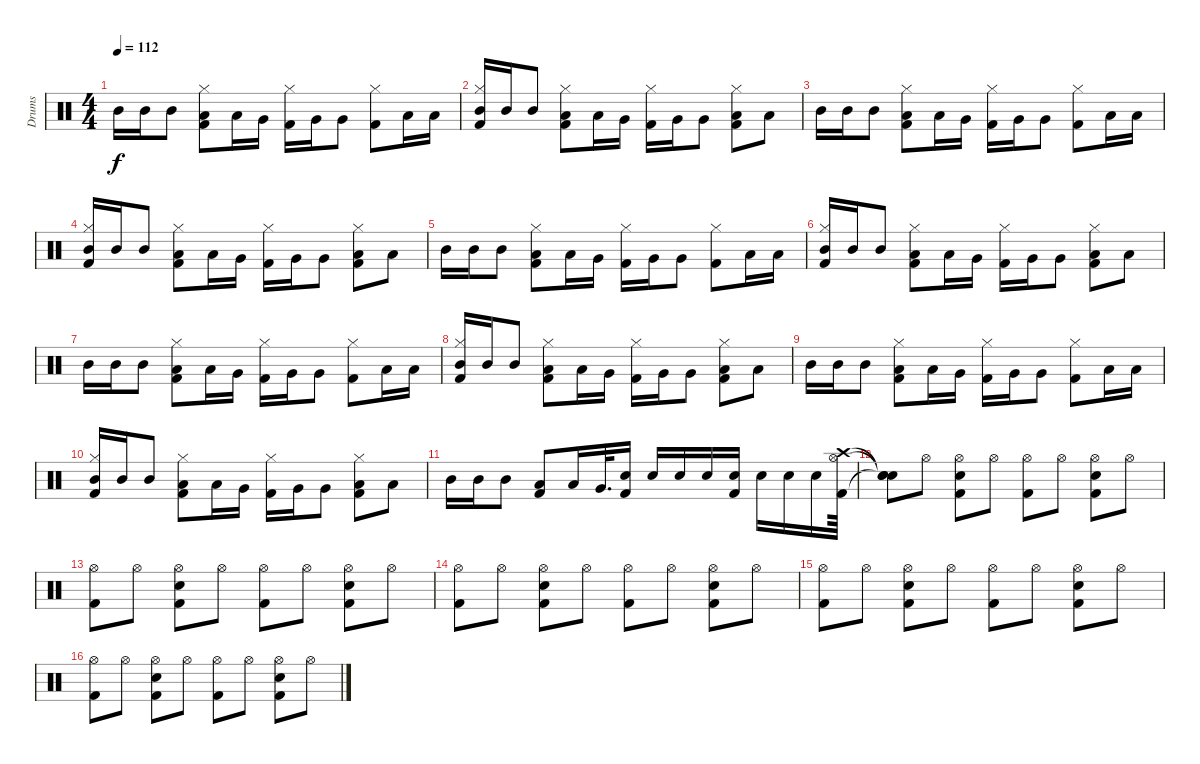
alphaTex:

\track ("Drums" "Drums") {instrument percussion}
\staff {score}
\articulation defaults
\ts (4 4)
\tempo 112
\clef neutral
\ks c "Mid Tom (hit)".16{dy f} "Mid Tom (hit)".16 "Mid Tom (hit)".8
("Hi-Hat (closed)" "Kick (hit) 2" "Low Tom (hit)").8 "Low Tom (hit)".16 "Very Low Tom (hit)".16 ("Kick (hit) 2" "Hi-Hat (closed)").16 "Very Low Tom (hit)".16 "Very Low Tom (hit)".8 ("Kick (hit) 2" "Hi-Hat (closed)").8 "Low Floor Tom (hit)".16 "Low Floor Tom (hit)".16 |
("Hi-Hat (closed)" "Kick (hit) 2" "Mid Tom (hit)").16 "Mid Tom (hit)".16 "Mid Tom (hit)".8 ("Hi-Hat (closed)" "Low Tom (hit)" "Kick (hit) 2").8 "Low Tom (hit)".16 "Very Low Tom (hit)".16 ("Kick (hit) 2" "Hi-Hat (closed)").16 "Very Low Tom (hit)".16 "Very Low Tom (hit)".8 ("Low Floor Tom (hit)" "Kick (hit) 2" "Hi-Hat (closed)").8 "Low Floor Tom (hit)".8 |
"Mid Tom (hit)".16 "Mid Tom (hit)".16 "Mid Tom (hit)".8 ("Hi-Hat (closed)" "Kick (hit) 2" "Low Tom (hit)").8 "Low Tom (hit)".16 "Very Low Tom (hit)".16 ("Kick (hit) 2" "Hi-Hat (closed)").16 "Very Low Tom (hit)".16 "Very Low Tom (hit)".8 ("Kick (hit) 2" "Hi-Hat (closed)").8 "Low Floor Tom (hit)".16 "Low Floor Tom (hit)".16 |
("Hi-Hat (closed)" "Kick (hit) 2" "Mid Tom (hit)").16 "Mid Tom (hit)".16 "Mid Tom (hit)".8 ("Hi-Hat (closed)" "Low Tom (hit)" "Kick (hit) 2").8 "Low Tom (hit)".16 "Very Low Tom (hit)".16 ("Kick (hit) 2" "Hi-Hat (closed)").16 "Very Low Tom (hit)".16 "Very Low Tom (hit)".8 ("Low Floor Tom (hit)" "Kick (hit) 2" "Hi-Hat (closed)").8 "Low Floor Tom (hit)".8 |
"Mid Tom (hit)".16 "Mid Tom (hit)".16 "Mid Tom (hit)".8 ("Hi-Hat (closed)" "Kick (hit) 2" "Low Tom (hit)").8 "Low Tom (hit)".16 "Very Low Tom (hit)".16 ("Kick (hit) 2" "Hi-Hat (closed)").16 "Very Low Tom (hit)".16 "Very Low Tom (hit)".8 ("Kick (hit) 2" "Hi-Hat (closed)").8 "Low Floor Tom (hit)".16 "Low Floor Tom (hit)".16 |
("Hi-Hat (closed)" "Kick (hit) 2" "Mid Tom (hit)").16 "Mid Tom (hit)".16 "Mid Tom (hit)".8 ("Hi-Hat (closed)" "Low Tom (hit)" "Kick (hit) 2").8 "Low Tom (hit)".16 "Very Low Tom (hit)".16 ("Kick (hit) 2" "Hi-Hat (closed)").16 "Very Low Tom (hit)".16 "Very Low Tom (hit)".8 ("Low Floor Tom (hit)" "Kick (hit) 2" "Hi-Hat (closed)").8 "Low Floor Tom (hit)".8 |
"Mid Tom (hit)".16 "Mid Tom (hit)".16 "Mid Tom (hit)".8 ("Hi-Hat (closed)" "Kick (hit) 2" "Low Tom (hit)").8 "Low Tom (hit)".16 "Very Low Tom (hit)".16 ("Kick (hit) 2" "Hi-Hat (closed)").16 "Very Low Tom (hit)".16 "Very Low Tom (hit)".8 ("Kick (hit) 2" "Hi-Hat (closed)").8 "Low Floor Tom (hit)".16 "Low Floor Tom (hit)".16 |
("Hi-Hat (closed)" "Kick (hit) 2" "Mid Tom (hit)").16 "Mid Tom (hit)".16 "Mid Tom (hit)".8 ("Hi-Hat (closed)" "Low Tom (hit)" "Kick (hit) 2").8 "Low Tom (hit)".16 "Very Low Tom (hit)".16 ("Kick (hit) 2" "Hi-Hat (closed)").16 "Very Low Tom (hit)".16 "Very Low Tom (hit)".8 ("Low Floor Tom (hit)" "Kick (hit) 2" "Hi-Hat (closed)").8 "Low Floor Tom (hit)".8 |
"Mid Tom (hit)".16 "Mid Tom (hit)".16 "Mid Tom (hit)".8 ("Hi-Hat (closed)" "Kick (hit) 2" "Low Tom (hit)").8 "Low Tom (hit)".16 "Very Low Tom (hit)".16 ("Kick (hit) 2" "Hi-Hat (closed)").16 "Very Low Tom (hit)".16 "Very Low Tom (hit)".8 ("Kick (hit) 2" "Hi-Hat (closed)").8 "Low Floor Tom (hit)".16 "Low Floor Tom (hit)".16 |
("Hi-Hat (closed)" "Kick (hit) 2" "Mid Tom (hit)").16 "Mid Tom (hit)".16 "Mid Tom (hit)".8 ("Hi-Hat (closed)" "Low Tom (hit)" "Kick (hit) 2").8 "Low Tom (hit)".16 "Very Low Tom (hit)".16 ("Kick (hit) 2" "Hi-Hat (closed)").16 "Very Low Tom (hit)".16 "Very Low Tom (hit)".8 ("Low Floor Tom (hit)" "Kick (hit) 2" "Hi-Hat (closed)").8 "Low Floor Tom (hit)".8 |
"Mid Tom (hit)".16 "Mid Tom (hit)".16 "Mid Tom (hit)".8 ("Kick (hit) 2" "Low Tom (hit)").8 "Low Tom (hit)".16 "Very Low Tom (hit)".32{d} ("Snare (hit) 2" "Kick (hit) 2").16 "Snare (hit) 2".16 "Snare (hit) 2".16 "Snare (hit) 2".16 ("Snare (hit) 2" "Kick (hit) 2").16 "Snare (hit) 2".16 "Snare (hit) 2".16 "Snare (hit) 2".16 ("Kick (hit) 2" "Crash high (hit)" "Hi-Hat (open)").64 |
("Snare (hit)"{t} "Snare (hit)"{t} "Snare (hit)"{t}).8 "Hi-Hat (open)".8 ("Hi-Hat (open)" "Kick (hit) 2" "Snare (hit) 2").8 "Hi-Hat (open)".8 ("Kick (hit) 2" "Hi-Hat (open)").8 "Hi-Hat (open)".8 ("Snare (hit) 2" "Hi-Hat (open)" "Kick (hit) 2").8 "Hi-Hat (open)".8 |
("Hi-Hat (open)" "Kick (hit) 2").8 "Hi-Hat (open)".8 ("Hi-Hat (open)" "Kick (hit) 2" "Snare (hit) 2").8 "Hi-Hat (open)".8 ("Kick (hit) 2" "Hi-Hat (open)").8 "Hi-Hat (open)".8 ("Kick (hit) 2" "Snare (hit) 2" "Hi-Hat (open)").8 "Hi-Hat (open)".8 |
("Hi-Hat (open)" "Kick (hit) 2").8 "Hi-Hat (open)".8 ("Hi-Hat (open)" "Kick (hit) 2" "Snare (hit) 2").8 "Hi-Hat (open)".8 ("Kick (hit) 2" "Hi-Hat (open)").8 "Hi-Hat (open)".8 ("Kick (hit) 2" "Snare (hit) 2" "Hi-Hat (open)").8 "Hi-Hat (open)".8 |
("Hi-Hat (open)" "Kick (hit) 2").8 "Hi-Hat (open)".8 ("Hi-Hat (open)" "Kick (hit) 2" "Snare (hit) 2").8 "Hi-Hat (open)".8 ("Kick (hit) 2" "Hi-Hat (open)").8 "Hi-Hat (open)".8 ("Kick (hit) 2" "Snare (hit) 2" "Hi-Hat (open)").8 "Hi-Hat (open)".8 |
("Hi-Hat (open)" "Kick (hit) 2").8 "Hi-Hat (open)".8 ("Hi-Hat (open)" "Kick (hit) 2" "Snare (hit) 2").8 "Hi-Hat (open)".8 ("Kick (hit) 2" "Hi-Hat (open)").8 "Hi-Hat (open)".8 ("Kick (hit) 2" "Snare (hit) 2" "Hi-Hat (open)").8 "Hi-Hat (open)".8
